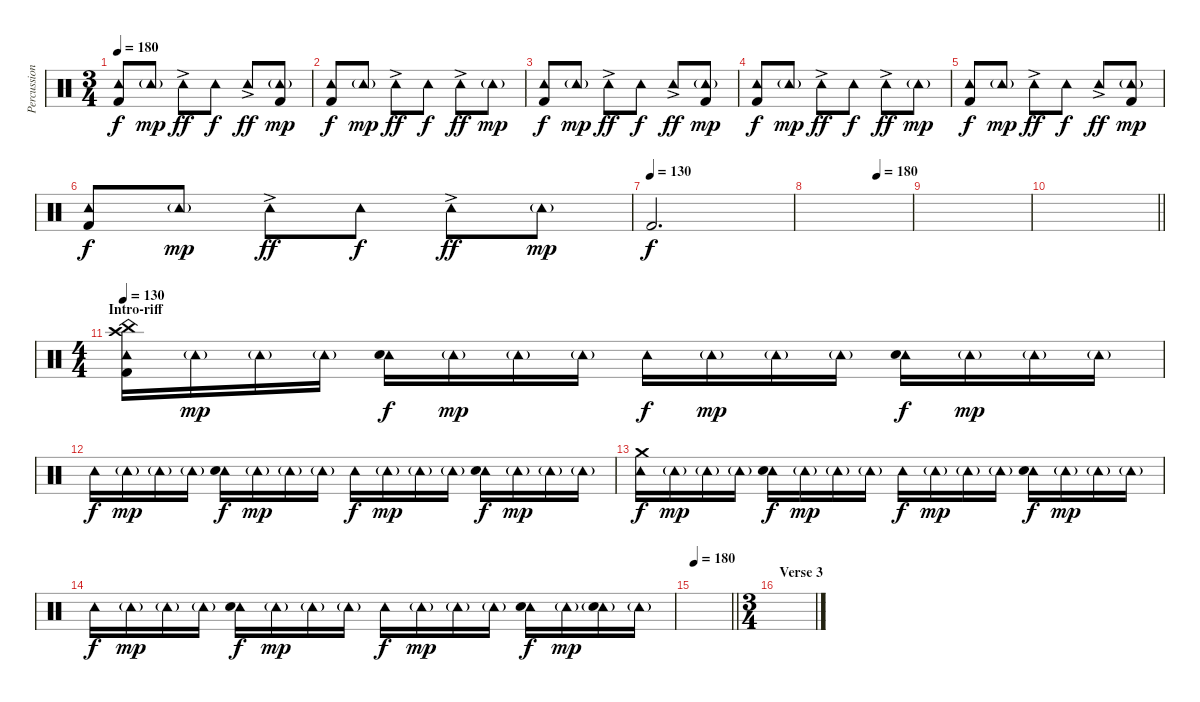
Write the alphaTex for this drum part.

\track ("Percussion" "Percussion") {instrument percussion}
\staff {score}
\articulation defaults
\ts (3 4)
\tempo 180
\clef neutral
\ks c
("Tambourine (hit)" "Kick (hit) 2").8{dy f} "Tambourine (hit)"{g}.8{dy mp} "Tambourine (hit)"{ac}.8{dy ff volume 10} "Tambourine (hit)".8{dy f volume 6} "Tambourine (hit)"{ac}.8{dy ff volume 10} ("Tambourine (hit)"{g} "Kick (hit) 2").8{dy mp} |
("Tambourine (hit)" "Kick (hit) 2").8{dy f} "Tambourine (hit)"{g}.8{dy mp} "Tambourine (hit)"{ac}.8{dy ff volume 10} "Tambourine (hit)".8{dy f volume 6} "Tambourine (hit)"{ac}.8{dy ff volume 10} "Tambourine (hit)"{g}.8{dy mp} |
("Tambourine (hit)" "Kick (hit) 2").8{dy f} "Tambourine (hit)"{g}.8{dy mp} "Tambourine (hit)"{ac}.8{dy ff volume 10} "Tambourine (hit)".8{dy f volume 6} "Tambourine (hit)"{ac}.8{dy ff volume 10} ("Tambourine (hit)"{g} "Kick (hit) 2").8{dy mp} |
("Tambourine (hit)" "Kick (hit) 2").8{dy f} "Tambourine (hit)"{g}.8{dy mp} "Tambourine (hit)"{ac}.8{dy ff volume 10} "Tambourine (hit)".8{dy f volume 6} "Tambourine (hit)"{ac}.8{dy ff volume 10} "Tambourine (hit)"{g}.8{dy mp} |
("Tambourine (hit)" "Kick (hit) 2").8{dy f} "Tambourine (hit)"{g}.8{dy mp} "Tambourine (hit)"{ac}.8{dy ff volume 10} "Tambourine (hit)".8{dy f volume 6} "Tambourine (hit)"{ac}.8{dy ff volume 10} ("Tambourine (hit)"{g} "Kick (hit) 2").8{dy mp} |
("Tambourine (hit)" "Kick (hit) 2").8{dy f} "Tambourine (hit)"{g}.8{dy mp} "Tambourine (hit)"{ac}.8{dy ff volume 10} "Tambourine (hit)".8{dy f volume 6} "Tambourine (hit)"{ac}.8{dy ff volume 10} "Tambourine (hit)"{g}.8{dy mp} |
\tempo (130)
"Kick (hit) 2".2{d dy f} |
\tempo (180 0.6666666666666666)
|
|
\barLineRight lightlight
|
\ts (4 4)
\section ("" "Intro-riff")
\tempo 130
("Tambourine (hit)" "Crash high (hit)" "China (hit)" "Kick (hit) 2").16 "Tambourine (hit)"{g}.16{dy mp} "Tambourine (hit)"{g}.16 "Tambourine (hit)"{g}.16 ("Tambourine (hit)" "Electric Snare (hit)").16{dy f} "Tambourine (hit)"{g}.16{dy mp} "Tambourine (hit)"{g}.16 "Tambourine (hit)"{g}.16 "Tambourine (hit)".16{dy f} "Tambourine (hit)"{g}.16{dy mp} "Tambourine (hit)"{g}.16 "Tambourine (hit)"{g}.16 ("Tambourine (hit)" "Electric Snare (hit)").16{dy f} "Tambourine (hit)"{g}.16{dy mp} "Tambourine (hit)"{g}.16 "Tambourine (hit)"{g}.16 |
"Tambourine (hit)".16{dy f} "Tambourine (hit)"{g}.16{dy mp} "Tambourine (hit)"{g}.16 "Tambourine (hit)"{g}.16 ("Tambourine (hit)" "Electric Snare (hit)").16{dy f} "Tambourine (hit)"{g}.16{dy mp} "Tambourine (hit)"{g}.16 "Tambourine (hit)"{g}.16 "Tambourine (hit)".16{dy f} "Tambourine (hit)"{g}.16{dy mp} "Tambourine (hit)"{g}.16 "Tambourine (hit)"{g}.16 ("Tambourine (hit)" "Electric Snare (hit)").16{dy f} "Tambourine (hit)"{g}.16{dy mp} "Tambourine (hit)"{g}.16 "Tambourine (hit)"{g}.16 |
("Tambourine (hit)" "Crash medium (hit)").16{dy f} "Tambourine (hit)"{g}.16{dy mp} "Tambourine (hit)"{g}.16 "Tambourine (hit)"{g}.16 ("Tambourine (hit)" "Electric Snare (hit)").16{dy f} "Tambourine (hit)"{g}.16{dy mp} "Tambourine (hit)"{g}.16 "Tambourine (hit)"{g}.16 "Tambourine (hit)".16{dy f} "Tambourine (hit)"{g}.16{dy mp} "Tambourine (hit)"{g}.16 "Tambourine (hit)"{g}.16 ("Tambourine (hit)" "Electric Snare (hit)").16{dy f} "Tambourine (hit)"{g}.16{dy mp} "Tambourine (hit)"{g}.16 "Tambourine (hit)"{g}.16 |
"Tambourine (hit)".16{dy f} "Tambourine (hit)"{g}.16{dy mp} "Tambourine (hit)"{g}.16 "Tambourine (hit)"{g}.16 ("Tambourine (hit)" "Electric Snare (hit)").16{dy f} "Tambourine (hit)"{g}.16{dy mp} "Tambourine (hit)"{g}.16 "Tambourine (hit)"{g}.16 "Tambourine (hit)".16{dy f} "Tambourine (hit)"{g}.16{dy mp} "Tambourine (hit)"{g}.16 "Tambourine (hit)"{g}.16 ("Tambourine (hit)" "Electric Snare (hit)").16{dy f} "Tambourine (hit)"{g}.16{dy mp} ("Tambourine (hit)"{g} "Electric Snare (hit)").16 "Tambourine (hit)"{g}.16 |
\tempo 180
\barLineRight lightlight
|
\ts (3 4)
\section ("" "Verse 3")
